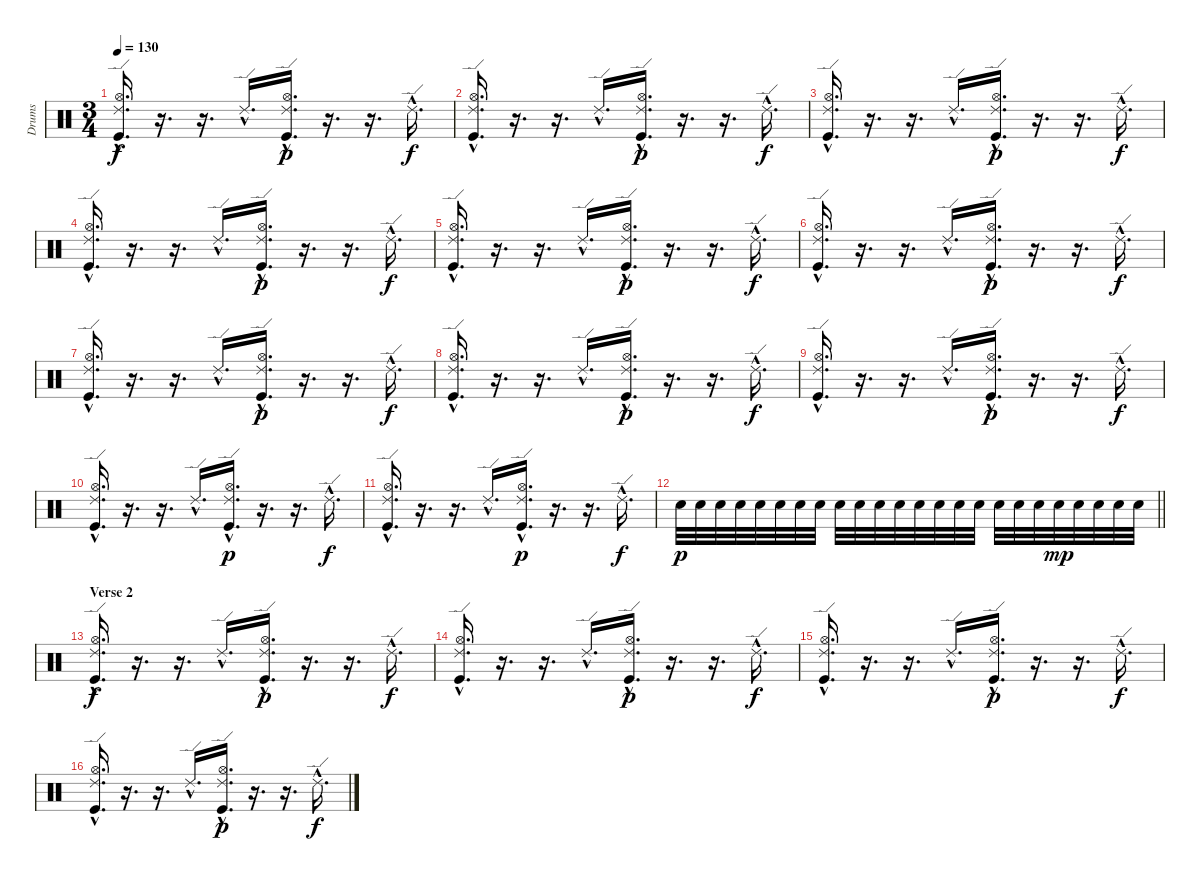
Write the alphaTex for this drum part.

\track ("Drums" "Drums") {instrument percussion}
\staff {score}
\articulation defaults
\ts (3 4)
\tempo 130
\clef neutral
\ks c
("Ride (edge) 2"{hac} "Hi-Hat (open)"{hac} "Kick (hit)"{hac}).16{d dy f} r.16{d} r.16{d} "Ride (edge) 2"{hac}.16{d} ("Ride (edge) 2"{hac} "Hi-Hat (open)"{hac} "Kick (hit)"{hac}).16{d dy p} r.16{d} r.16{d} "Ride (edge) 2"{hac}.16{d dy f} |
("Ride (edge) 2"{hac} "Hi-Hat (open)"{hac} "Kick (hit)"{hac}).16{d} r.16{d} r.16{d} "Ride (edge) 2"{hac}.16{d} ("Ride (edge) 2"{hac} "Hi-Hat (open)"{hac} "Kick (hit)"{hac}).16{d dy p} r.16{d} r.16{d} "Ride (edge) 2"{hac}.16{d dy f} |
("Ride (edge) 2"{hac} "Hi-Hat (open)"{hac} "Kick (hit)"{hac}).16{d} r.16{d} r.16{d} "Ride (edge) 2"{hac}.16{d} ("Ride (edge) 2"{hac} "Hi-Hat (open)"{hac} "Kick (hit)"{hac}).16{d dy p} r.16{d} r.16{d} "Ride (edge) 2"{hac}.16{d dy f} |
("Ride (edge) 2"{hac} "Hi-Hat (open)"{hac} "Kick (hit)"{hac}).16{d} r.16{d} r.16{d} "Ride (edge) 2"{hac}.16{d} ("Ride (edge) 2"{hac} "Hi-Hat (open)"{hac} "Kick (hit)"{hac}).16{d dy p} r.16{d} r.16{d} "Ride (edge) 2"{hac}.16{d dy f} |
("Ride (edge) 2"{hac} "Hi-Hat (open)"{hac} "Kick (hit)"{hac}).16{d} r.16{d} r.16{d} "Ride (edge) 2"{hac}.16{d} ("Ride (edge) 2"{hac} "Hi-Hat (open)"{hac} "Kick (hit)"{hac}).16{d dy p} r.16{d} r.16{d} "Ride (edge) 2"{hac}.16{d dy f} |
("Ride (edge) 2"{hac} "Hi-Hat (open)"{hac} "Kick (hit)"{hac}).16{d} r.16{d} r.16{d} "Ride (edge) 2"{hac}.16{d} ("Ride (edge) 2"{hac} "Hi-Hat (open)"{hac} "Kick (hit)"{hac}).16{d dy p} r.16{d} r.16{d} "Ride (edge) 2"{hac}.16{d dy f} |
("Ride (edge) 2"{hac} "Hi-Hat (open)"{hac} "Kick (hit)"{hac}).16{d} r.16{d} r.16{d} "Ride (edge) 2"{hac}.16{d} ("Ride (edge) 2"{hac} "Hi-Hat (open)"{hac} "Kick (hit)"{hac}).16{d dy p} r.16{d} r.16{d} "Ride (edge) 2"{hac}.16{d dy f} |
("Ride (edge) 2"{hac} "Hi-Hat (open)"{hac} "Kick (hit)"{hac}).16{d} r.16{d} r.16{d} "Ride (edge) 2"{hac}.16{d} ("Ride (edge) 2"{hac} "Hi-Hat (open)"{hac} "Kick (hit)"{hac}).16{d dy p} r.16{d} r.16{d} "Ride (edge) 2"{hac}.16{d dy f} |
("Ride (edge) 2"{hac} "Hi-Hat (open)"{hac} "Kick (hit)"{hac}).16{d} r.16{d} r.16{d} "Ride (edge) 2"{hac}.16{d} ("Ride (edge) 2"{hac} "Hi-Hat (open)"{hac} "Kick (hit)"{hac}).16{d dy p} r.16{d} r.16{d} "Ride (edge) 2"{hac}.16{d dy f} |
("Ride (edge) 2"{hac} "Hi-Hat (open)"{hac} "Kick (hit)"{hac}).16{d} r.16{d} r.16{d} "Ride (edge) 2"{hac}.16{d} ("Ride (edge) 2"{hac} "Hi-Hat (open)"{hac} "Kick (hit)"{hac}).16{d dy p} r.16{d} r.16{d} "Ride (edge) 2"{hac}.16{d dy f} |
("Ride (edge) 2"{hac} "Hi-Hat (open)"{hac} "Kick (hit)"{hac}).16{d} r.16{d} r.16{d} "Ride (edge) 2"{hac}.16{d} ("Ride (edge) 2"{hac} "Hi-Hat (open)"{hac} "Kick (hit)"{hac}).16{d dy p} r.16{d} r.16{d} "Ride (edge) 2"{hac}.16{d dy f} |
\barLineRight lightlight "Electric Snare (hit)".32{dy p} "Electric Snare (hit)".32 "Electric Snare (hit)".32 "Electric Snare (hit)".32 "Electric Snare (hit)".32 "Electric Snare (hit)".32 "Electric Snare (hit)".32 "Electric Snare (hit)".32 "Electric Snare (hit)".32 "Electric Snare (hit)".32 "Electric Snare (hit)".32 "Electric Snare (hit)".32 "Electric Snare (hit)".32 "Electric Snare (hit)".32 "Electric Snare (hit)".32 "Electric Snare (hit)".32 "Electric Snare (hit)".32 "Electric Snare (hit)".32 "Electric Snare (hit)".32 "Electric Snare (hit)".32{dy mp} "Electric Snare (hit)".32 "Electric Snare (hit)".32 "Electric Snare (hit)".32 "Electric Snare (hit)".32
|
\section ("" "Verse 2")
("Ride (edge) 2"{hac} "Hi-Hat (open)"{hac} "Kick (hit)"{hac}).16{d dy f} r.16{d} r.16{d} "Ride (edge) 2"{hac}.16{d} ("Ride (edge) 2"{hac} "Hi-Hat (open)"{hac} "Kick (hit)"{hac}).16{d dy p} r.16{d} r.16{d} "Ride (edge) 2"{hac}.16{d dy f} |
("Ride (edge) 2"{hac} "Hi-Hat (open)"{hac} "Kick (hit)"{hac}).16{d} r.16{d} r.16{d} "Ride (edge) 2"{hac}.16{d} ("Ride (edge) 2"{hac} "Hi-Hat (open)"{hac} "Kick (hit)"{hac}).16{d dy p} r.16{d} r.16{d} "Ride (edge) 2"{hac}.16{d dy f} |
("Ride (edge) 2"{hac} "Hi-Hat (open)"{hac} "Kick (hit)"{hac}).16{d} r.16{d} r.16{d} "Ride (edge) 2"{hac}.16{d} ("Ride (edge) 2"{hac} "Hi-Hat (open)"{hac} "Kick (hit)"{hac}).16{d dy p} r.16{d} r.16{d} "Ride (edge) 2"{hac}.16{d dy f} |
("Ride (edge) 2"{hac} "Hi-Hat (open)"{hac} "Kick (hit)"{hac}).16{d} r.16{d} r.16{d} "Ride (edge) 2"{hac}.16{d} ("Ride (edge) 2"{hac} "Hi-Hat (open)"{hac} "Kick (hit)"{hac}).16{d dy p} r.16{d} r.16{d} "Ride (edge) 2"{hac}.16{d dy f}
